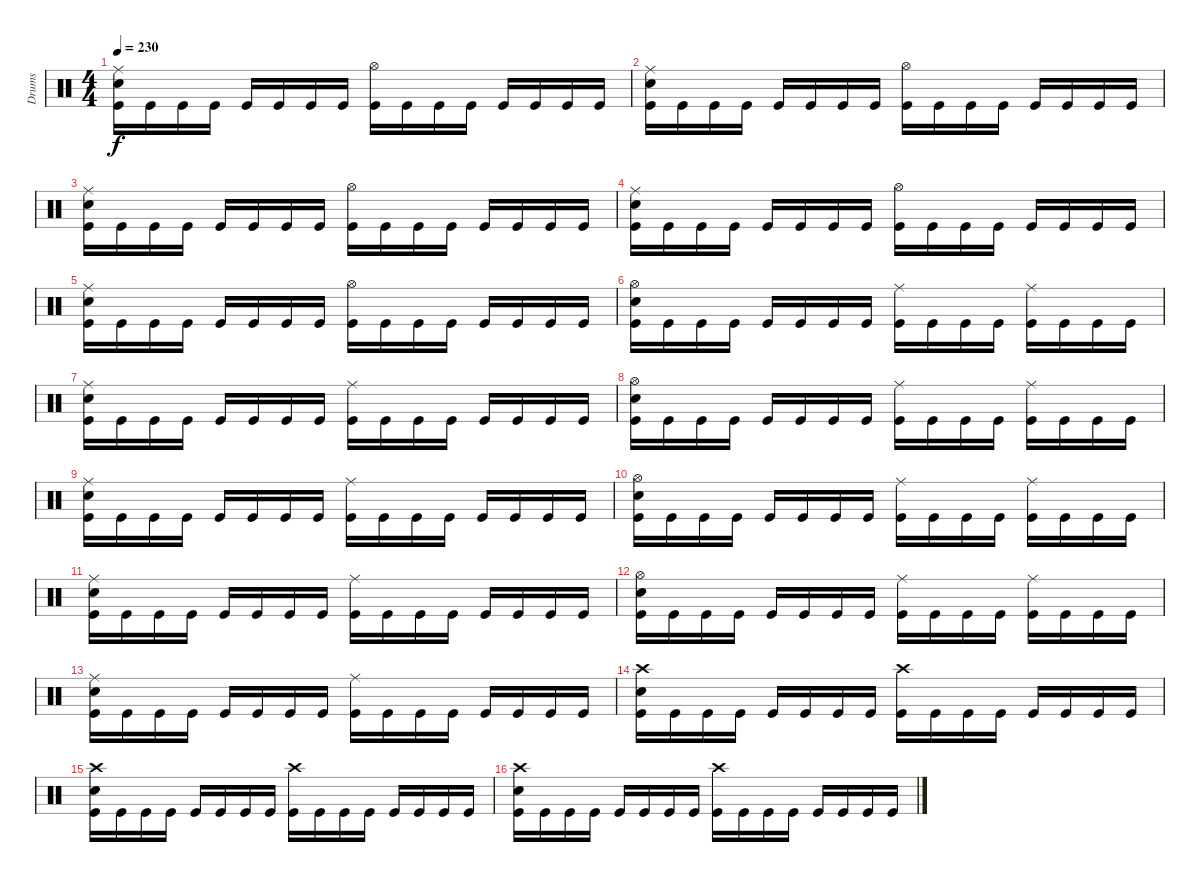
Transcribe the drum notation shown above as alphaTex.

\track ("Drums" "Drums") {instrument percussion}
\staff {score}
\articulation defaults
\ts (4 4)
\tempo 230
\clef neutral
\ks c
("Ride (middle)" "Electric Snare (hit)" "Kick (hit)").16{dy f} "Kick (hit)".16 "Kick (hit)".16 "Kick (hit)".16 "Kick (hit)".16 "Kick (hit)".16 "Kick (hit)".16 "Kick (hit)".16 ("Hi-Hat (open)" "Kick (hit)").16 "Kick (hit)".16 "Kick (hit)".16 "Kick (hit)".16 "Kick (hit)".16 "Kick (hit)".16 "Kick (hit)".16 "Kick (hit)".16 |
("Ride (middle)" "Electric Snare (hit)" "Kick (hit)").16 "Kick (hit)".16 "Kick (hit)".16 "Kick (hit)".16 "Kick (hit)".16 "Kick (hit)".16 "Kick (hit)".16 "Kick (hit)".16 ("Hi-Hat (open)" "Kick (hit)").16 "Kick (hit)".16 "Kick (hit)".16 "Kick (hit)".16 "Kick (hit)".16 "Kick (hit)".16 "Kick (hit)".16 "Kick (hit)".16 |
("Ride (middle)" "Electric Snare (hit)" "Kick (hit)").16 "Kick (hit)".16 "Kick (hit)".16 "Kick (hit)".16 "Kick (hit)".16 "Kick (hit)".16 "Kick (hit)".16 "Kick (hit)".16 ("Hi-Hat (open)" "Kick (hit)").16 "Kick (hit)".16 "Kick (hit)".16 "Kick (hit)".16 "Kick (hit)".16 "Kick (hit)".16 "Kick (hit)".16 "Kick (hit)".16 |
("Ride (middle)" "Electric Snare (hit)" "Kick (hit)").16 "Kick (hit)".16 "Kick (hit)".16 "Kick (hit)".16 "Kick (hit)".16 "Kick (hit)".16 "Kick (hit)".16 "Kick (hit)".16 ("Hi-Hat (open)" "Kick (hit)").16 "Kick (hit)".16 "Kick (hit)".16 "Kick (hit)".16 "Kick (hit)".16 "Kick (hit)".16 "Kick (hit)".16 "Kick (hit)".16 |
("Ride (middle)" "Electric Snare (hit)" "Kick (hit)").16 "Kick (hit)".16 "Kick (hit)".16 "Kick (hit)".16 "Kick (hit)".16 "Kick (hit)".16 "Kick (hit)".16 "Kick (hit)".16 ("Hi-Hat (open)" "Kick (hit)").16 "Kick (hit)".16 "Kick (hit)".16 "Kick (hit)".16 "Kick (hit)".16 "Kick (hit)".16 "Kick (hit)".16 "Kick (hit)".16 |
("Hi-Hat (open)" "Electric Snare (hit)" "Kick (hit)").16 "Kick (hit)".16 "Kick (hit)".16 "Kick (hit)".16 "Kick (hit)".16 "Kick (hit)".16 "Kick (hit)".16 "Kick (hit)".16 ("Ride (middle)" "Kick (hit)").16 "Kick (hit)".16 "Kick (hit)".16 "Kick (hit)".16 ("Ride (middle)" "Kick (hit)").16 "Kick (hit)".16 "Kick (hit)".16 "Kick (hit)".16 |
("Ride (middle)" "Electric Snare (hit)" "Kick (hit)").16 "Kick (hit)".16 "Kick (hit)".16 "Kick (hit)".16 "Kick (hit)".16 "Kick (hit)".16 "Kick (hit)".16 "Kick (hit)".16 ("Ride (middle)" "Kick (hit)").16 "Kick (hit)".16 "Kick (hit)".16 "Kick (hit)".16 "Kick (hit)".16 "Kick (hit)".16 "Kick (hit)".16 "Kick (hit)".16 |
("Hi-Hat (open)" "Electric Snare (hit)" "Kick (hit)").16 "Kick (hit)".16 "Kick (hit)".16 "Kick (hit)".16 "Kick (hit)".16 "Kick (hit)".16 "Kick (hit)".16 "Kick (hit)".16 ("Ride (middle)" "Kick (hit)").16 "Kick (hit)".16 "Kick (hit)".16 "Kick (hit)".16 ("Ride (middle)" "Kick (hit)").16 "Kick (hit)".16 "Kick (hit)".16 "Kick (hit)".16 |
("Ride (middle)" "Electric Snare (hit)" "Kick (hit)").16 "Kick (hit)".16 "Kick (hit)".16 "Kick (hit)".16 "Kick (hit)".16 "Kick (hit)".16 "Kick (hit)".16 "Kick (hit)".16 ("Ride (middle)" "Kick (hit)").16 "Kick (hit)".16 "Kick (hit)".16 "Kick (hit)".16 "Kick (hit)".16 "Kick (hit)".16 "Kick (hit)".16 "Kick (hit)".16 |
("Hi-Hat (open)" "Electric Snare (hit)" "Kick (hit)").16 "Kick (hit)".16 "Kick (hit)".16 "Kick (hit)".16 "Kick (hit)".16 "Kick (hit)".16 "Kick (hit)".16 "Kick (hit)".16 ("Ride (middle)" "Kick (hit)").16 "Kick (hit)".16 "Kick (hit)".16 "Kick (hit)".16 ("Ride (middle)" "Kick (hit)").16 "Kick (hit)".16 "Kick (hit)".16 "Kick (hit)".16 |
("Ride (middle)" "Electric Snare (hit)" "Kick (hit)").16 "Kick (hit)".16 "Kick (hit)".16 "Kick (hit)".16 "Kick (hit)".16 "Kick (hit)".16 "Kick (hit)".16 "Kick (hit)".16 ("Ride (middle)" "Kick (hit)").16 "Kick (hit)".16 "Kick (hit)".16 "Kick (hit)".16 "Kick (hit)".16 "Kick (hit)".16 "Kick (hit)".16 "Kick (hit)".16 |
("Hi-Hat (open)" "Electric Snare (hit)" "Kick (hit)").16 "Kick (hit)".16 "Kick (hit)".16 "Kick (hit)".16 "Kick (hit)".16 "Kick (hit)".16 "Kick (hit)".16 "Kick (hit)".16 ("Ride (middle)" "Kick (hit)").16 "Kick (hit)".16 "Kick (hit)".16 "Kick (hit)".16 ("Ride (middle)" "Kick (hit)").16 "Kick (hit)".16 "Kick (hit)".16 "Kick (hit)".16 |
("Ride (middle)" "Electric Snare (hit)" "Kick (hit)").16 "Kick (hit)".16 "Kick (hit)".16 "Kick (hit)".16 "Kick (hit)".16 "Kick (hit)".16 "Kick (hit)".16 "Kick (hit)".16 ("Ride (middle)" "Kick (hit)").16 "Kick (hit)".16 "Kick (hit)".16 "Kick (hit)".16 "Kick (hit)".16 "Kick (hit)".16 "Kick (hit)".16 "Kick (hit)".16 |
("Crash high (hit)" "Electric Snare (hit)" "Kick (hit)").16 "Kick (hit)".16 "Kick (hit)".16 "Kick (hit)".16 "Kick (hit)".16 "Kick (hit)".16 "Kick (hit)".16 "Kick (hit)".16 ("Crash high (hit)" "Kick (hit)").16 "Kick (hit)".16 "Kick (hit)".16 "Kick (hit)".16 "Kick (hit)".16 "Kick (hit)".16 "Kick (hit)".16 "Kick (hit)".16 |
("Crash high (hit)" "Electric Snare (hit)" "Kick (hit)").16 "Kick (hit)".16 "Kick (hit)".16 "Kick (hit)".16 "Kick (hit)".16 "Kick (hit)".16 "Kick (hit)".16 "Kick (hit)".16 ("Crash high (hit)" "Kick (hit)").16 "Kick (hit)".16 "Kick (hit)".16 "Kick (hit)".16 "Kick (hit)".16 "Kick (hit)".16 "Kick (hit)".16 "Kick (hit)".16 |
("Crash high (hit)" "Electric Snare (hit)" "Kick (hit)").16 "Kick (hit)".16 "Kick (hit)".16 "Kick (hit)".16 "Kick (hit)".16 "Kick (hit)".16 "Kick (hit)".16 "Kick (hit)".16 ("Crash high (hit)" "Kick (hit)").16 "Kick (hit)".16 "Kick (hit)".16 "Kick (hit)".16 "Kick (hit)".16 "Kick (hit)".16 "Kick (hit)".16 "Kick (hit)".16
